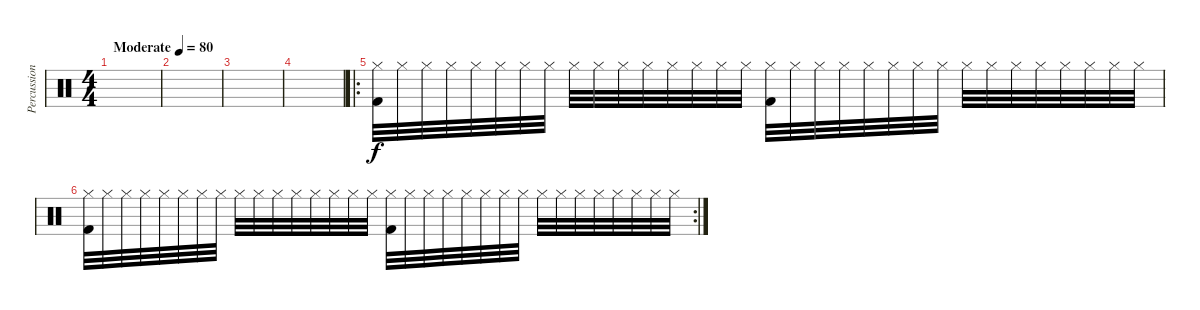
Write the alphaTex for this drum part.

\track ("Percussion" "Percussion") {instrument percussion}
\staff {score}
\articulation defaults
\ts (4 4)
\tempo (80 "Moderate")
\clef neutral
\ks c
|
|
|
|
\ro
("Hi-Hat (closed)" "Kick (hit) 2").32 "Hi-Hat (closed)".32 "Hi-Hat (closed)".32 "Hi-Hat (closed)".32 "Hi-Hat (closed)".32 "Hi-Hat (closed)".32 "Hi-Hat (closed)".32 "Hi-Hat (closed)".32 "Hi-Hat (closed)".32 "Hi-Hat (closed)".32 "Hi-Hat (closed)".32 "Hi-Hat (closed)".32 "Hi-Hat (closed)".32 "Hi-Hat (closed)".32 "Hi-Hat (closed)".32 "Hi-Hat (closed)".32 ("Hi-Hat (closed)" "Kick (hit) 2").32 "Hi-Hat (closed)".32 "Hi-Hat (closed)".32 "Hi-Hat (closed)".32 "Hi-Hat (closed)".32 "Hi-Hat (closed)".32 "Hi-Hat (closed)".32 "Hi-Hat (closed)".32 "Hi-Hat (closed)".32 "Hi-Hat (closed)".32 "Hi-Hat (closed)".32 "Hi-Hat (closed)".32 "Hi-Hat (closed)".32 "Hi-Hat (closed)".32 "Hi-Hat (closed)".32 "Hi-Hat (closed)".32 |
\rc 2
("Hi-Hat (closed)" "Kick (hit) 2").32 "Hi-Hat (closed)".32 "Hi-Hat (closed)".32 "Hi-Hat (closed)".32 "Hi-Hat (closed)".32 "Hi-Hat (closed)".32 "Hi-Hat (closed)".32 "Hi-Hat (closed)".32 "Hi-Hat (closed)".32 "Hi-Hat (closed)".32 "Hi-Hat (closed)".32 "Hi-Hat (closed)".32 "Hi-Hat (closed)".32 "Hi-Hat (closed)".32 "Hi-Hat (closed)".32 "Hi-Hat (closed)".32 ("Hi-Hat (closed)" "Kick (hit) 2").32 "Hi-Hat (closed)".32 "Hi-Hat (closed)".32 "Hi-Hat (closed)".32 "Hi-Hat (closed)".32 "Hi-Hat (closed)".32 "Hi-Hat (closed)".32 "Hi-Hat (closed)".32 "Hi-Hat (closed)".32 "Hi-Hat (closed)".32 "Hi-Hat (closed)".32 "Hi-Hat (closed)".32 "Hi-Hat (closed)".32 "Hi-Hat (closed)".32 "Hi-Hat (closed)".32 "Hi-Hat (closed)".32
